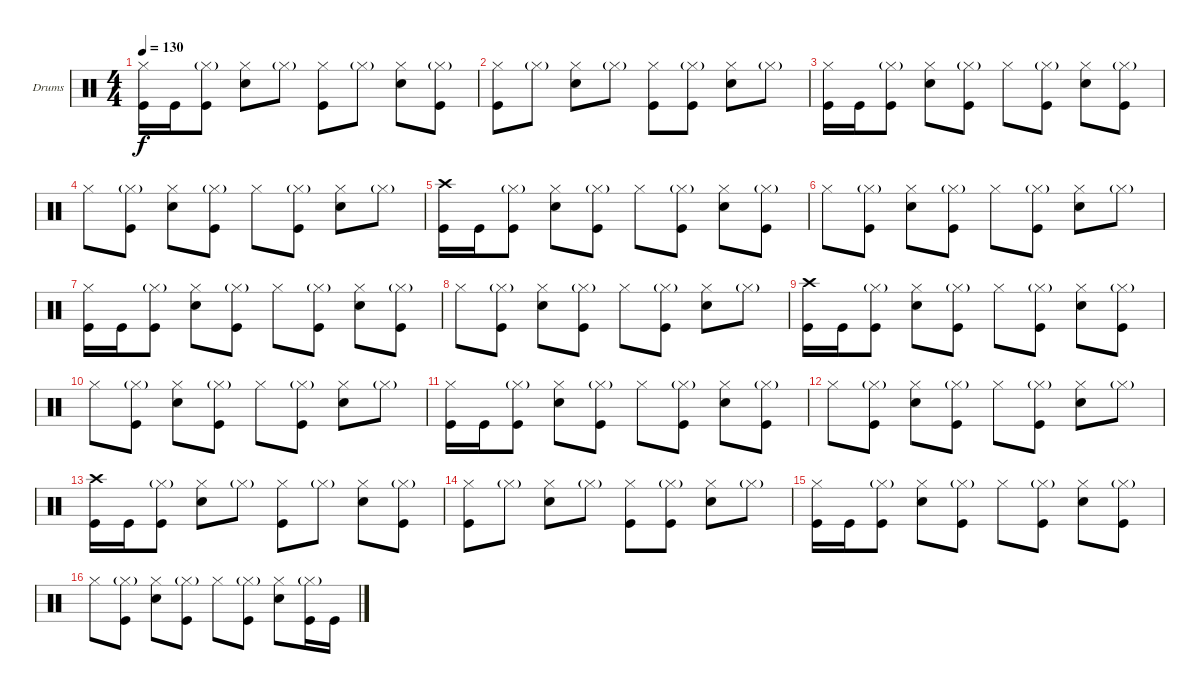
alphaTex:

\bracketExtendMode groupsimilarinstruments
\firstSystemTrackNameOrientation horizontal
\otherSystemsTrackNameOrientation horizontal
\track ("Drumkit" "Drums") {instrument percussion}
\staff {score}
\articulation defaults
\ts (4 4)
\tempo 130
\clef neutral
\ks c
("Kick (hit)" "Hi-Hat (closed)").16{dy f} "Kick (hit)".16 ("Kick (hit)" "Hi-Hat (closed)"{g}).8 ("Snare (hit) 2" "Hi-Hat (closed)").8 "Hi-Hat (closed)"{g}.8 ("Hi-Hat (closed)" "Kick (hit)").8 "Hi-Hat (closed)"{g}.8 ("Snare (hit) 2" "Hi-Hat (closed)").8 ("Hi-Hat (closed)"{g} "Kick (hit)").8 |
("Hi-Hat (closed)" "Kick (hit)").8 "Hi-Hat (closed)"{g}.8 ("Snare (hit) 2" "Hi-Hat (closed)").8 "Hi-Hat (closed)"{g}.8 ("Hi-Hat (closed)" "Kick (hit)").8 ("Kick (hit)" "Hi-Hat (closed)"{g}).8 ("Snare (hit) 2" "Hi-Hat (closed)").8 "Hi-Hat (closed)"{g}.8 |
("Kick (hit)" "Hi-Hat (closed)").16 "Kick (hit)".16 ("Kick (hit)" "Hi-Hat (closed)"{g}).8 ("Snare (hit) 2" "Hi-Hat (closed)").8 ("Kick (hit)" "Hi-Hat (closed)"{g}).8 "Hi-Hat (closed)".8 ("Kick (hit)" "Hi-Hat (closed)"{g}).8 ("Snare (hit) 2" "Hi-Hat (closed)").8 ("Kick (hit)" "Hi-Hat (closed)"{g}).8 |
"Hi-Hat (closed)".8 ("Kick (hit)" "Hi-Hat (closed)"{g}).8 ("Snare (hit) 2" "Hi-Hat (closed)").8 ("Kick (hit)" "Hi-Hat (closed)"{g}).8 "Hi-Hat (closed)".8 ("Kick (hit)" "Hi-Hat (closed)"{g}).8 ("Snare (hit) 2" "Hi-Hat (closed)").8 "Hi-Hat (closed)"{g}.8 |
("Crash high (hit)" "Kick (hit)").16 "Kick (hit)".16 ("Kick (hit)" "Hi-Hat (closed)"{g}).8 ("Snare (hit) 2" "Hi-Hat (closed)").8 ("Kick (hit)" "Hi-Hat (closed)"{g}).8 "Hi-Hat (closed)".8 ("Kick (hit)" "Hi-Hat (closed)"{g}).8 ("Snare (hit) 2" "Hi-Hat (closed)").8 ("Kick (hit)" "Hi-Hat (closed)"{g}).8 |
"Hi-Hat (closed)".8 ("Kick (hit)" "Hi-Hat (closed)"{g}).8 ("Snare (hit) 2" "Hi-Hat (closed)").8 ("Kick (hit)" "Hi-Hat (closed)"{g}).8 "Hi-Hat (closed)".8 ("Kick (hit)" "Hi-Hat (closed)"{g}).8 ("Snare (hit) 2" "Hi-Hat (closed)").8 "Hi-Hat (closed)"{g}.8 |
("Kick (hit)" "Hi-Hat (closed)").16 "Kick (hit)".16 ("Kick (hit)" "Hi-Hat (closed)"{g}).8 ("Snare (hit) 2" "Hi-Hat (closed)").8 ("Kick (hit)" "Hi-Hat (closed)"{g}).8 "Hi-Hat (closed)".8 ("Kick (hit)" "Hi-Hat (closed)"{g}).8 ("Snare (hit) 2" "Hi-Hat (closed)").8 ("Kick (hit)" "Hi-Hat (closed)"{g}).8 |
"Hi-Hat (closed)".8 ("Kick (hit)" "Hi-Hat (closed)"{g}).8 ("Snare (hit) 2" "Hi-Hat (closed)").8 ("Kick (hit)" "Hi-Hat (closed)"{g}).8 "Hi-Hat (closed)".8 ("Kick (hit)" "Hi-Hat (closed)"{g}).8 ("Snare (hit) 2" "Hi-Hat (closed)").8 "Hi-Hat (closed)"{g}.8 |
("Crash high (hit)" "Kick (hit)").16 "Kick (hit)".16 ("Kick (hit)" "Hi-Hat (closed)"{g}).8 ("Snare (hit) 2" "Hi-Hat (closed)").8 ("Kick (hit)" "Hi-Hat (closed)"{g}).8 "Hi-Hat (closed)".8 ("Kick (hit)" "Hi-Hat (closed)"{g}).8 ("Snare (hit) 2" "Hi-Hat (closed)").8 ("Kick (hit)" "Hi-Hat (closed)"{g}).8 |
"Hi-Hat (closed)".8 ("Kick (hit)" "Hi-Hat (closed)"{g}).8 ("Snare (hit) 2" "Hi-Hat (closed)").8 ("Kick (hit)" "Hi-Hat (closed)"{g}).8 "Hi-Hat (closed)".8 ("Kick (hit)" "Hi-Hat (closed)"{g}).8 ("Snare (hit) 2" "Hi-Hat (closed)").8 "Hi-Hat (closed)"{g}.8 |
("Kick (hit)" "Hi-Hat (closed)").16 "Kick (hit)".16 ("Kick (hit)" "Hi-Hat (closed)"{g}).8 ("Snare (hit) 2" "Hi-Hat (closed)").8 ("Kick (hit)" "Hi-Hat (closed)"{g}).8 "Hi-Hat (closed)".8 ("Kick (hit)" "Hi-Hat (closed)"{g}).8 ("Snare (hit) 2" "Hi-Hat (closed)").8 ("Kick (hit)" "Hi-Hat (closed)"{g}).8 |
"Hi-Hat (closed)".8 ("Kick (hit)" "Hi-Hat (closed)"{g}).8 ("Snare (hit) 2" "Hi-Hat (closed)").8 ("Kick (hit)" "Hi-Hat (closed)"{g}).8 "Hi-Hat (closed)".8 ("Kick (hit)" "Hi-Hat (closed)"{g}).8 ("Snare (hit) 2" "Hi-Hat (closed)").8 "Hi-Hat (closed)"{g}.8 |
("Crash high (hit)" "Kick (hit)").16 "Kick (hit)".16 ("Kick (hit)" "Hi-Hat (closed)"{g}).8 ("Snare (hit) 2" "Hi-Hat (closed)").8 "Hi-Hat (closed)"{g}.8 ("Hi-Hat (closed)" "Kick (hit)").8 "Hi-Hat (closed)"{g}.8 ("Snare (hit) 2" "Hi-Hat (closed)").8 ("Hi-Hat (closed)"{g} "Kick (hit)").8 |
("Hi-Hat (closed)" "Kick (hit)").8 "Hi-Hat (closed)"{g}.8 ("Snare (hit) 2" "Hi-Hat (closed)").8 "Hi-Hat (closed)"{g}.8 ("Hi-Hat (closed)" "Kick (hit)").8 ("Kick (hit)" "Hi-Hat (closed)"{g}).8 ("Snare (hit) 2" "Hi-Hat (closed)").8 "Hi-Hat (closed)"{g}.8 |
("Kick (hit)" "Hi-Hat (closed)").16 "Kick (hit)".16 ("Kick (hit)" "Hi-Hat (closed)"{g}).8 ("Snare (hit) 2" "Hi-Hat (closed)").8 ("Kick (hit)" "Hi-Hat (closed)"{g}).8 "Hi-Hat (closed)".8 ("Kick (hit)" "Hi-Hat (closed)"{g}).8 ("Snare (hit) 2" "Hi-Hat (closed)").8 ("Kick (hit)" "Hi-Hat (closed)"{g}).8 |
"Hi-Hat (closed)".8 ("Kick (hit)" "Hi-Hat (closed)"{g}).8 ("Snare (hit) 2" "Hi-Hat (closed)").8 ("Kick (hit)" "Hi-Hat (closed)"{g}).8 "Hi-Hat (closed)".8 ("Kick (hit)" "Hi-Hat (closed)"{g}).8 ("Snare (hit) 2" "Hi-Hat (closed)").8 ("Hi-Hat (closed)"{g} "Kick (hit)").16 "Kick (hit)".16
